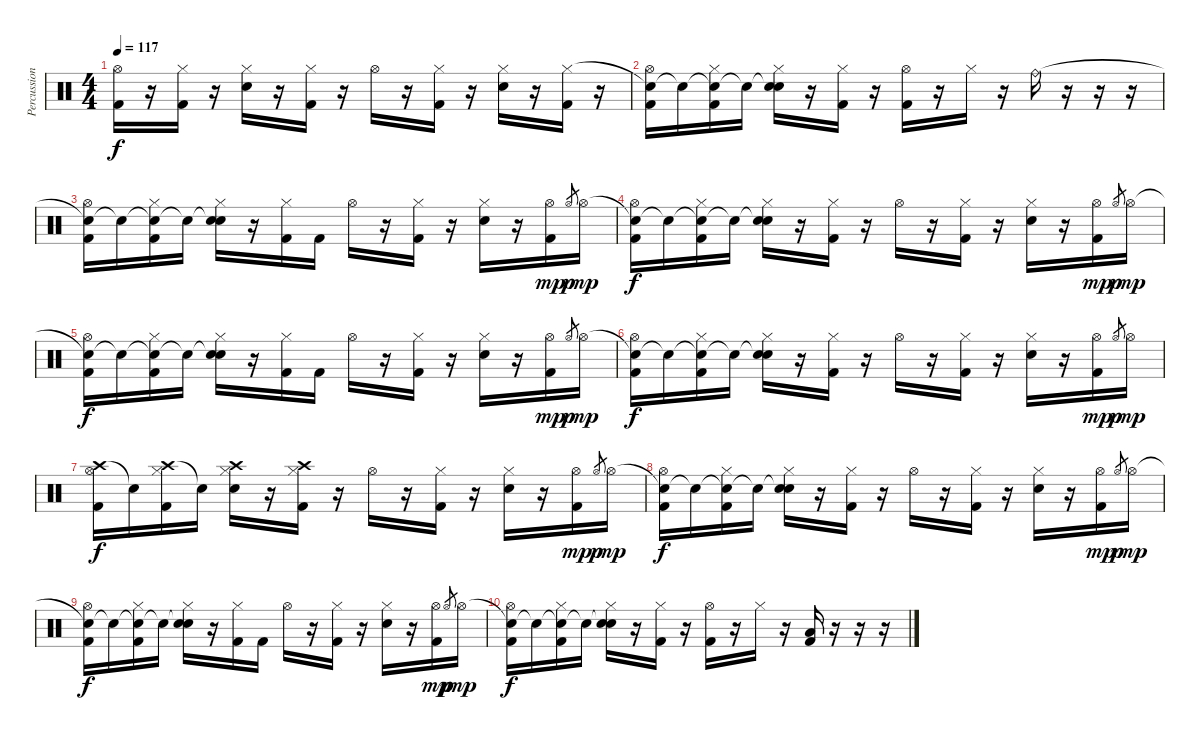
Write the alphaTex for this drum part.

\track ("Percussion" "Percussion") {instrument percussion}
\staff {score}
\articulation defaults
\ts (4 4)
\tempo 117
\clef neutral
\ks c
("Hi-Hat (open)" "Kick (hit) 2").16{dy f} r.16 ("Hi-Hat (closed)" "Kick (hit) 2").16 r.16 ("Hi-Hat (closed)" "Electric Snare (hit)").16 r.16 ("Hi-Hat (closed)" "Kick (hit) 2").16 r.16 "Hi-Hat (open)".16 r.16 ("Hi-Hat (closed)" "Kick (hit) 2").16 r.16 ("Hi-Hat (closed)" "Electric Snare (hit)").16 r.16 ("Hi-Hat (closed)" "Kick (hit) 2").16 r.16 |
("Snare (hit)"{t} "Hi-Hat (open)" "Kick (hit) 2").16 "Snare (hit)"{t}.16 ("Snare (hit)"{t} "Hi-Hat (closed)" "Kick (hit) 2").16 "Snare (hit)"{t}.16 ("Snare (hit)"{t} "Hi-Hat (closed)" "Electric Snare (hit)").16 r.16 ("Hi-Hat (closed)" "Kick (hit) 2").16 r.16 ("Hi-Hat (open)" "Kick (hit) 2").16 r.16 "Hi-Hat (closed)".16 r.16 "Ride (bell)".16 r.16 r.16 r.16 |
("Snare (hit)"{t} "Hi-Hat (open)" "Kick (hit) 2").16 "Snare (hit)"{t}.16 ("Snare (hit)"{t} "Hi-Hat (closed)" "Kick (hit) 2").16 "Snare (hit)"{t}.16 ("Snare (hit)"{t} "Hi-Hat (closed)" "Electric Snare (hit)").16 r.16 ("Hi-Hat (closed)" "Kick (hit) 2").16 "Kick (hit) 2".16 "Hi-Hat (open)".16 r.16 ("Hi-Hat (closed)" "Kick (hit) 2").16 r.16 ("Hi-Hat (closed)" "Electric Snare (hit)").16 r.16 ("Hi-Hat (open)" "Kick (hit) 2").16{dy mp} "Hi-Hat (open)".8{gr dy p} "Hi-Hat (open)".16{dy mp} |
("Snare (hit)"{t} "Hi-Hat (open)" "Kick (hit) 2").16{dy f} "Snare (hit)"{t}.16 ("Snare (hit)"{t} "Hi-Hat (closed)" "Kick (hit) 2").16 "Snare (hit)"{t}.16 ("Snare (hit)"{t} "Hi-Hat (closed)" "Electric Snare (hit)").16 r.16 ("Hi-Hat (closed)" "Kick (hit) 2").16 r.16 "Hi-Hat (open)".16 r.16 ("Hi-Hat (closed)" "Kick (hit) 2").16 r.16 ("Hi-Hat (closed)" "Electric Snare (hit)").16 r.16 ("Hi-Hat (open)" "Kick (hit) 2").16{dy mp} "Hi-Hat (open)".8{gr dy p} "Hi-Hat (open)".16{dy mp} |
("Snare (hit)"{t} "Hi-Hat (open)" "Kick (hit) 2").16{dy f} "Snare (hit)"{t}.16 ("Snare (hit)"{t} "Hi-Hat (closed)" "Kick (hit) 2").16 "Snare (hit)"{t}.16 ("Snare (hit)"{t} "Hi-Hat (closed)" "Electric Snare (hit)").16 r.16 ("Hi-Hat (closed)" "Kick (hit) 2").16 "Kick (hit) 2".16 "Hi-Hat (open)".16 r.16 ("Hi-Hat (closed)" "Kick (hit) 2").16 r.16 ("Hi-Hat (closed)" "Electric Snare (hit)").16 r.16 ("Hi-Hat (open)" "Kick (hit) 2").16{dy mp} "Hi-Hat (open)".8{gr dy p} "Hi-Hat (open)".16{dy mp} |
("Snare (hit)"{t} "Hi-Hat (open)" "Kick (hit) 2").16{dy f} "Snare (hit)"{t}.16 ("Snare (hit)"{t} "Hi-Hat (closed)" "Kick (hit) 2").16 "Snare (hit)"{t}.16 ("Snare (hit)"{t} "Hi-Hat (closed)" "Electric Snare (hit)").16 r.16 ("Hi-Hat (closed)" "Kick (hit) 2").16 r.16 "Hi-Hat (open)".16 r.16 ("Hi-Hat (closed)" "Kick (hit) 2").16 r.16 ("Hi-Hat (closed)" "Electric Snare (hit)").16 r.16 ("Hi-Hat (open)" "Kick (hit) 2").16{dy mp} "Hi-Hat (open)".8{gr dy p} "Hi-Hat (open)".16{dy mp} |
("Crash high (hit)" "Hi-Hat (open)" "Kick (hit) 2").16{dy f} "Snare (hit)"{t}.16 ("Crash high (hit)" "Hi-Hat (closed)" "Kick (hit) 2").16 "Snare (hit)"{t}.16 ("Crash high (hit)" "Hi-Hat (closed)" "Electric Snare (hit)").16 r.16 ("Crash high (hit)" "Hi-Hat (closed)" "Kick (hit) 2").16 r.16 "Hi-Hat (open)".16 r.16 ("Hi-Hat (closed)" "Kick (hit) 2").16 r.16 ("Hi-Hat (closed)" "Electric Snare (hit)").16 r.16 ("Hi-Hat (open)" "Kick (hit) 2").16{dy mp} "Hi-Hat (open)".8{gr dy p} "Hi-Hat (open)".16{dy mp} |
("Snare (hit)"{t} "Hi-Hat (open)" "Kick (hit) 2").16{dy f} "Snare (hit)"{t}.16 ("Snare (hit)"{t} "Hi-Hat (closed)" "Kick (hit) 2").16 "Snare (hit)"{t}.16 ("Snare (hit)"{t} "Hi-Hat (closed)" "Electric Snare (hit)").16 r.16 ("Hi-Hat (closed)" "Kick (hit) 2").16 r.16 "Hi-Hat (open)".16 r.16 ("Hi-Hat (closed)" "Kick (hit) 2").16 r.16 ("Hi-Hat (closed)" "Electric Snare (hit)").16 r.16 ("Hi-Hat (open)" "Kick (hit) 2").16{dy mp} "Hi-Hat (open)".8{gr dy p} "Hi-Hat (open)".16{dy mp} |
("Snare (hit)"{t} "Hi-Hat (open)" "Kick (hit) 2").16{dy f} "Snare (hit)"{t}.16 ("Snare (hit)"{t} "Hi-Hat (closed)" "Kick (hit) 2").16 "Snare (hit)"{t}.16 ("Snare (hit)"{t} "Hi-Hat (closed)" "Electric Snare (hit)").16 r.16 ("Hi-Hat (closed)" "Kick (hit) 2").16 "Kick (hit) 2".16 "Hi-Hat (open)".16 r.16 ("Hi-Hat (closed)" "Kick (hit) 2").16 r.16 ("Hi-Hat (closed)" "Electric Snare (hit)").16 r.16 ("Hi-Hat (open)" "Kick (hit) 2").16{dy mp} "Hi-Hat (open)".8{gr dy p} "Hi-Hat (open)".16{dy mp} |
("Snare (hit)"{t} "Hi-Hat (open)" "Kick (hit) 2").16{dy f} "Snare (hit)"{t}.16 ("Snare (hit)"{t} "Hi-Hat (closed)" "Kick (hit) 2").16 "Snare (hit)"{t}.16 ("Snare (hit)"{t} "Hi-Hat (closed)" "Electric Snare (hit)").16 r.16 ("Hi-Hat (closed)" "Kick (hit) 2").16 r.16 ("Hi-Hat (open)" "Kick (hit) 2").16 r.16 "Hi-Hat (closed)".16 r.16 ("Kick (hit) 2" "Low Floor Tom (hit)").16 r.16 r.16 r.16
